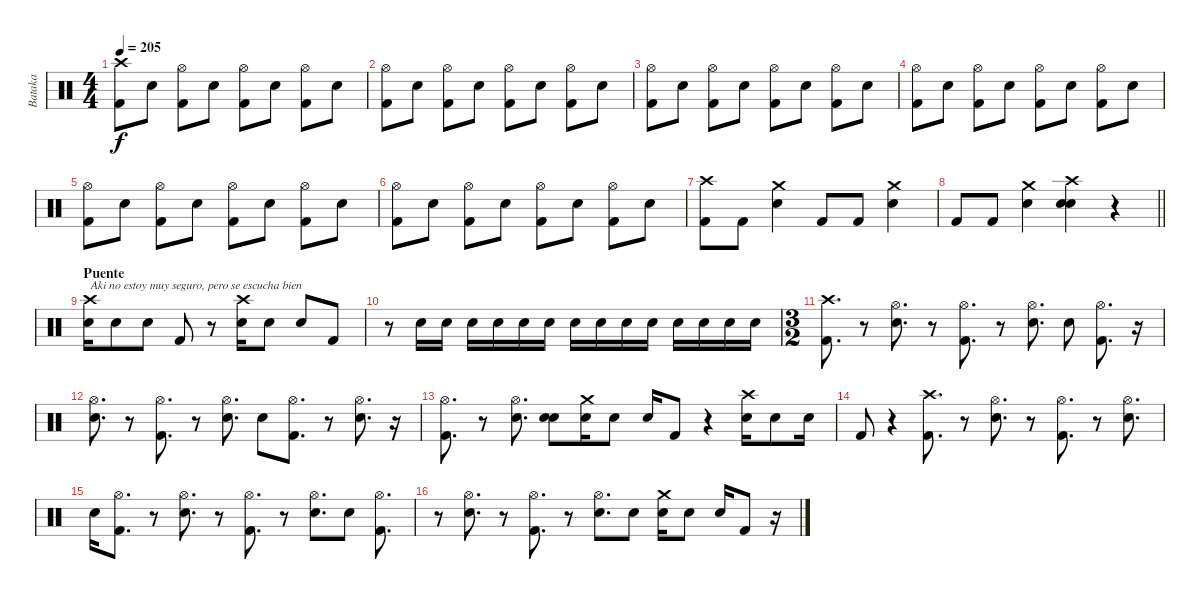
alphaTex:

\track ("Bataka" "Bataka") {instrument percussion}
\staff {score}
\articulation defaults
\ts (4 4)
\tempo 205
\clef neutral
\ks c
("Crash high (hit)" "Kick (hit) 2").8{dy f} "Snare (hit) 2".8 ("Hi-Hat (open)" "Kick (hit) 2").8 "Snare (hit) 2".8 ("Hi-Hat (open)" "Kick (hit) 2").8 "Snare (hit) 2".8 ("Hi-Hat (open)" "Kick (hit) 2").8 "Snare (hit) 2".8 |
("Hi-Hat (open)" "Kick (hit) 2").8 "Snare (hit) 2".8 ("Hi-Hat (open)" "Kick (hit) 2").8 "Snare (hit) 2".8 ("Hi-Hat (open)" "Kick (hit) 2").8 "Snare (hit) 2".8 ("Hi-Hat (open)" "Kick (hit) 2").8 "Snare (hit) 2".8 |
("Hi-Hat (open)" "Kick (hit) 2").8 "Snare (hit) 2".8 ("Hi-Hat (open)" "Kick (hit) 2").8 "Snare (hit) 2".8 ("Hi-Hat (open)" "Kick (hit) 2").8 "Snare (hit) 2".8 ("Hi-Hat (open)" "Kick (hit) 2").8 "Snare (hit) 2".8 |
("Hi-Hat (open)" "Kick (hit) 2").8 "Snare (hit) 2".8 ("Hi-Hat (open)" "Kick (hit) 2").8 "Snare (hit) 2".8 ("Hi-Hat (open)" "Kick (hit) 2").8 "Snare (hit) 2".8 ("Hi-Hat (open)" "Kick (hit) 2").8 "Snare (hit) 2".8 |
("Hi-Hat (open)" "Kick (hit) 2").8 "Snare (hit) 2".8 ("Hi-Hat (open)" "Kick (hit) 2").8 "Snare (hit) 2".8 ("Hi-Hat (open)" "Kick (hit) 2").8 "Snare (hit) 2".8 ("Hi-Hat (open)" "Kick (hit) 2").8 "Snare (hit) 2".8 |
("Hi-Hat (open)" "Kick (hit) 2").8 "Snare (hit) 2".8 ("Hi-Hat (open)" "Kick (hit) 2").8 "Snare (hit) 2".8 ("Hi-Hat (open)" "Kick (hit) 2").8 "Snare (hit) 2".8 ("Hi-Hat (open)" "Kick (hit) 2").8 "Snare (hit) 2".8 |
("Crash high (hit)" "Kick (hit) 2").8 "Kick (hit) 2".8 ("Crash medium (hit)" "Snare (hit) 2").4 "Kick (hit) 2".8 "Kick (hit) 2".8 ("Crash medium (hit)" "Snare (hit) 2").4 |
\barLineRight lightlight "Kick (hit) 2".8 "Kick (hit) 2".8
("Crash medium (hit)" "Snare (hit) 2").4 ("Crash high (hit)" "Snare (hit) 2" "Snare (hit) 2").4 r.4 |
\section ("" "Puente")
("Crash high (hit)" "Snare (hit) 2").16{txt "Aki no estoy muy seguro, pero se escucha bien"} "Snare (hit) 2".8 "Snare (hit) 2".8 "Kick (hit) 2".8 r.8 ("Crash high (hit)" "Snare (hit) 2").16 "Snare (hit) 2".8 "Snare (hit) 2".8 "Kick (hit) 2".8 |
r.8 "Snare (hit) 2".16 "Snare (hit) 2".16 "Snare (hit) 2".16 "Snare (hit) 2".16 "Snare (hit) 2".16 "Snare (hit) 2".16 "Snare (hit) 2".16 "Snare (hit) 2".16 "Snare (hit) 2".16 "Snare (hit) 2".16 "Snare (hit) 2".16 "Snare (hit) 2".16 "Snare (hit) 2".16 "Snare (hit) 2".16 |
\ts (3 2)
("Crash high (hit)" "Kick (hit) 2").8{d} r.8 ("Hi-Hat (open)" "Snare (hit) 2").8{d} r.8 ("Hi-Hat (open)" "Kick (hit) 2").8{d} r.8 ("Hi-Hat (open)" "Snare (hit) 2").8{d} "Snare (hit) 2".8 ("Hi-Hat (open)" "Kick (hit) 2").8{d} r.16 |
("Hi-Hat (open)" "Snare (hit) 2").8{d} r.8 ("Hi-Hat (open)" "Kick (hit) 2").8{d} r.8 ("Hi-Hat (open)" "Snare (hit) 2").8{d} "Snare (hit) 2".8 ("Hi-Hat (open)" "Kick (hit) 2").8{d} r.8 ("Hi-Hat (open)" "Snare (hit) 2").8{d} r.16 |
("Hi-Hat (open)" "Kick (hit) 2").8{d} r.8 ("Hi-Hat (open)" "Snare (hit) 2").8{d} ("Snare (hit) 2" "Snare (hit) 2").8 ("Crash medium (hit)" "Snare (hit) 2").16 "Snare (hit) 2".8 "Snare (hit) 2".16 "Kick (hit) 2".8 r.4 ("Crash high (hit)" "Snare (hit) 2").16 "Snare (hit) 2".8 "Snare (hit) 2".16 |
"Kick (hit) 2".8 r.4 ("Crash high (hit)" "Kick (hit) 2").8{d} r.8 ("Hi-Hat (open)" "Snare (hit) 2").8{d} r.8 ("Hi-Hat (open)" "Kick (hit) 2").8{d} r.8 ("Hi-Hat (open)" "Snare (hit) 2").8{d} |
"Snare (hit) 2".16 ("Hi-Hat (open)" "Kick (hit) 2").8{d} r.8 ("Hi-Hat (open)" "Snare (hit) 2").8{d} r.8 ("Hi-Hat (open)" "Kick (hit) 2").8{d} r.8 ("Hi-Hat (open)" "Snare (hit) 2").8{d} "Snare (hit) 2".8 ("Hi-Hat (open)" "Kick (hit) 2").8{d} |
r.8 ("Hi-Hat (open)" "Snare (hit) 2").8{d} r.8 ("Hi-Hat (open)" "Kick (hit) 2").8{d} r.8 ("Hi-Hat (open)" "Snare (hit) 2").8{d} "Snare (hit) 2".8 ("Crash medium (hit)" "Snare (hit) 2").16 "Snare (hit) 2".8 "Snare (hit) 2".16 "Kick (hit) 2".8 r.16
